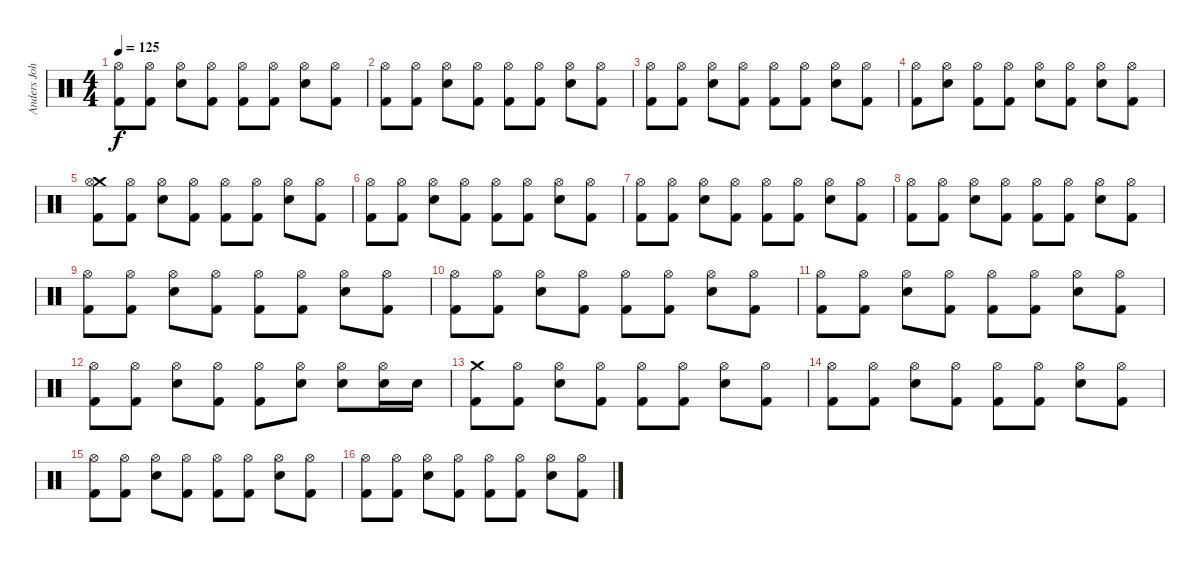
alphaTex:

\track ("Anders Johansson" "Anders Joh") {instrument percussion}
\staff {score}
\articulation defaults
\ts (4 4)
\tempo 125
\clef neutral
\ks c
("Hi-Hat (open)" "Kick (hit) 2").8{dy f} ("Hi-Hat (open)" "Kick (hit) 2").8 ("Hi-Hat (open)" "Snare (hit) 2").8 ("Hi-Hat (open)" "Kick (hit) 2").8 ("Hi-Hat (open)" "Kick (hit) 2").8 ("Hi-Hat (open)" "Kick (hit) 2").8 ("Hi-Hat (open)" "Snare (hit) 2").8 ("Hi-Hat (open)" "Kick (hit) 2").8 |
("Hi-Hat (open)" "Kick (hit) 2").8 ("Hi-Hat (open)" "Kick (hit) 2").8 ("Hi-Hat (open)" "Snare (hit) 2").8 ("Hi-Hat (open)" "Kick (hit) 2").8 ("Hi-Hat (open)" "Kick (hit) 2").8 ("Hi-Hat (open)" "Kick (hit) 2").8 ("Hi-Hat (open)" "Snare (hit) 2").8 ("Hi-Hat (open)" "Kick (hit) 2").8 |
("Hi-Hat (open)" "Kick (hit) 2").8 ("Hi-Hat (open)" "Kick (hit) 2").8 ("Hi-Hat (open)" "Snare (hit) 2").8 ("Hi-Hat (open)" "Kick (hit) 2").8 ("Hi-Hat (open)" "Kick (hit) 2").8 ("Hi-Hat (open)" "Kick (hit) 2").8 ("Hi-Hat (open)" "Snare (hit) 2").8 ("Hi-Hat (open)" "Kick (hit) 2").8 |
("Hi-Hat (open)" "Kick (hit) 2").8 ("Hi-Hat (open)" "Snare (hit) 2").8 ("Hi-Hat (open)" "Kick (hit) 2").8 ("Hi-Hat (open)" "Kick (hit) 2").8 ("Hi-Hat (open)" "Snare (hit) 2").8 ("Hi-Hat (open)" "Kick (hit) 2").8 ("Hi-Hat (open)" "Snare (hit) 2").8 ("Hi-Hat (open)" "Kick (hit) 2").8 |
("Crash medium (hit)" "Hi-Hat (open)" "Kick (hit) 2").8 ("Hi-Hat (open)" "Kick (hit) 2").8 ("Hi-Hat (open)" "Snare (hit) 2").8 ("Hi-Hat (open)" "Kick (hit) 2").8 ("Hi-Hat (open)" "Kick (hit) 2").8 ("Hi-Hat (open)" "Kick (hit) 2").8 ("Hi-Hat (open)" "Snare (hit) 2").8 ("Hi-Hat (open)" "Kick (hit) 2").8 |
("Hi-Hat (open)" "Kick (hit) 2").8 ("Hi-Hat (open)" "Kick (hit) 2").8 ("Hi-Hat (open)" "Snare (hit) 2").8 ("Hi-Hat (open)" "Kick (hit) 2").8 ("Hi-Hat (open)" "Kick (hit) 2").8 ("Hi-Hat (open)" "Kick (hit) 2").8 ("Hi-Hat (open)" "Snare (hit) 2").8 ("Hi-Hat (open)" "Kick (hit) 2").8 |
("Hi-Hat (open)" "Kick (hit) 2").8 ("Hi-Hat (open)" "Kick (hit) 2").8 ("Hi-Hat (open)" "Snare (hit) 2").8 ("Hi-Hat (open)" "Kick (hit) 2").8 ("Hi-Hat (open)" "Kick (hit) 2").8 ("Hi-Hat (open)" "Kick (hit) 2").8 ("Hi-Hat (open)" "Snare (hit) 2").8 ("Hi-Hat (open)" "Kick (hit) 2").8 |
("Hi-Hat (open)" "Kick (hit) 2").8 ("Hi-Hat (open)" "Kick (hit) 2").8 ("Hi-Hat (open)" "Snare (hit) 2").8 ("Hi-Hat (open)" "Kick (hit) 2").8 ("Hi-Hat (open)" "Kick (hit) 2").8 ("Hi-Hat (open)" "Kick (hit) 2").8 ("Hi-Hat (open)" "Snare (hit) 2").8 ("Hi-Hat (open)" "Kick (hit) 2").8 |
("Hi-Hat (open)" "Kick (hit) 2").8 ("Hi-Hat (open)" "Kick (hit) 2").8 ("Hi-Hat (open)" "Snare (hit) 2").8 ("Hi-Hat (open)" "Kick (hit) 2").8 ("Hi-Hat (open)" "Kick (hit) 2").8 ("Hi-Hat (open)" "Kick (hit) 2").8 ("Hi-Hat (open)" "Snare (hit) 2").8 ("Hi-Hat (open)" "Kick (hit) 2").8 |
("Hi-Hat (open)" "Kick (hit) 2").8 ("Hi-Hat (open)" "Kick (hit) 2").8 ("Hi-Hat (open)" "Snare (hit) 2").8 ("Hi-Hat (open)" "Kick (hit) 2").8 ("Hi-Hat (open)" "Kick (hit) 2").8 ("Hi-Hat (open)" "Kick (hit) 2").8 ("Hi-Hat (open)" "Snare (hit) 2").8 ("Hi-Hat (open)" "Kick (hit) 2").8 |
("Hi-Hat (open)" "Kick (hit) 2").8 ("Hi-Hat (open)" "Kick (hit) 2").8 ("Hi-Hat (open)" "Snare (hit) 2").8 ("Hi-Hat (open)" "Kick (hit) 2").8 ("Hi-Hat (open)" "Kick (hit) 2").8 ("Hi-Hat (open)" "Kick (hit) 2").8 ("Hi-Hat (open)" "Snare (hit) 2").8 ("Hi-Hat (open)" "Kick (hit) 2").8 |
("Hi-Hat (open)" "Kick (hit) 2").8 ("Hi-Hat (open)" "Kick (hit) 2").8 ("Hi-Hat (open)" "Snare (hit) 2").8 ("Hi-Hat (open)" "Kick (hit) 2").8 ("Hi-Hat (open)" "Kick (hit) 2").8 ("Hi-Hat (open)" "Snare (hit) 2").8 ("Hi-Hat (open)" "Snare (hit) 2").8 ("Hi-Hat (open)" "Electric Snare (hit)").16 "Snare (hit) 2".16 |
("Crash medium (hit)" "Kick (hit) 2").8 ("Hi-Hat (open)" "Kick (hit) 2").8 ("Hi-Hat (open)" "Snare (hit) 2").8 ("Hi-Hat (open)" "Kick (hit) 2").8 ("Hi-Hat (open)" "Kick (hit) 2").8 ("Hi-Hat (open)" "Kick (hit) 2").8 ("Hi-Hat (open)" "Snare (hit) 2").8 ("Hi-Hat (open)" "Kick (hit) 2").8 |
("Hi-Hat (open)" "Kick (hit) 2").8 ("Hi-Hat (open)" "Kick (hit) 2").8 ("Hi-Hat (open)" "Snare (hit) 2").8 ("Hi-Hat (open)" "Kick (hit) 2").8 ("Hi-Hat (open)" "Kick (hit) 2").8 ("Hi-Hat (open)" "Kick (hit) 2").8 ("Hi-Hat (open)" "Snare (hit) 2").8 ("Hi-Hat (open)" "Kick (hit) 2").8 |
("Hi-Hat (open)" "Kick (hit) 2").8 ("Hi-Hat (open)" "Kick (hit) 2").8 ("Hi-Hat (open)" "Snare (hit) 2").8 ("Hi-Hat (open)" "Kick (hit) 2").8 ("Hi-Hat (open)" "Kick (hit) 2").8 ("Hi-Hat (open)" "Kick (hit) 2").8 ("Hi-Hat (open)" "Snare (hit) 2").8 ("Hi-Hat (open)" "Kick (hit) 2").8 |
("Hi-Hat (open)" "Kick (hit) 2").8 ("Hi-Hat (open)" "Kick (hit) 2").8 ("Hi-Hat (open)" "Snare (hit) 2").8 ("Hi-Hat (open)" "Kick (hit) 2").8 ("Hi-Hat (open)" "Kick (hit) 2").8 ("Hi-Hat (open)" "Kick (hit) 2").8 ("Hi-Hat (open)" "Snare (hit) 2").8 ("Hi-Hat (open)" "Kick (hit) 2").8
